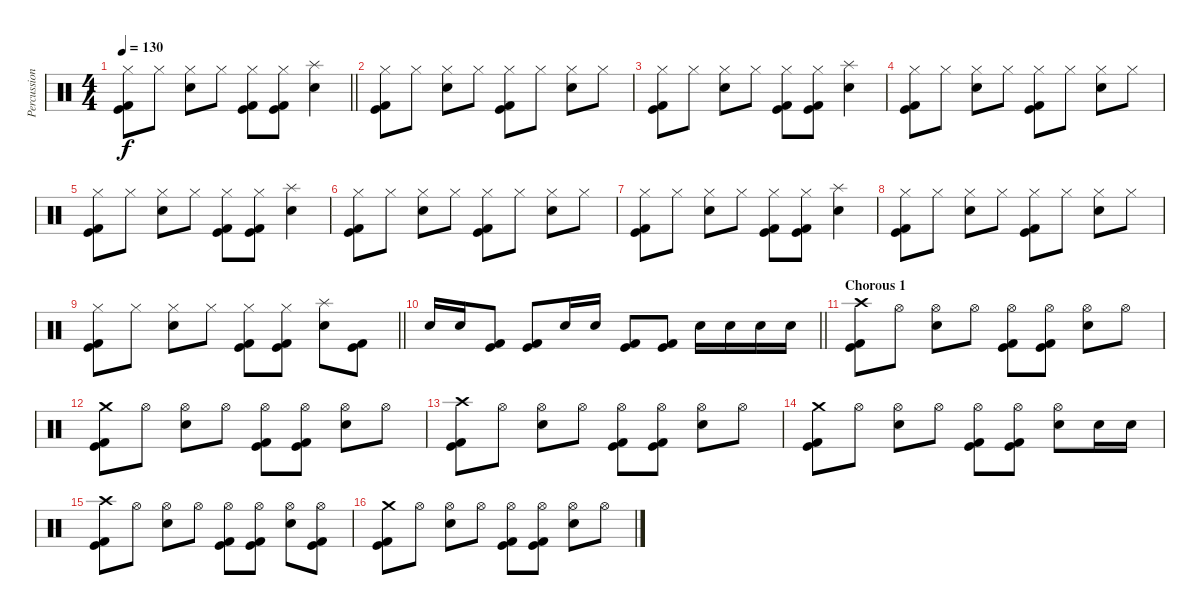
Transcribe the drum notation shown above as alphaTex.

\track ("Percussion" "Percussion") {instrument percussion}
\staff {score}
\articulation defaults
\ts (4 4)
\tempo 130
\clef neutral
\barLineRight lightlight
\ks c
("Hi-Hat (closed)" "Kick (hit)" "Kick (hit) 2").8{dy f} "Hi-Hat (closed)".8 ("Hi-Hat (closed)" "Electric Snare (hit)").8 "Hi-Hat (closed)".8 ("Hi-Hat (closed)" "Kick (hit)" "Kick (hit) 2").8 ("Hi-Hat (closed)" "Kick (hit)" "Kick (hit) 2").8 ("Splash (hit)" "Electric Snare (hit)").4 |
\section ("" "")
("Hi-Hat (closed)" "Kick (hit)" "Kick (hit) 2").8 "Hi-Hat (closed)".8 ("Hi-Hat (closed)" "Electric Snare (hit)").8 "Hi-Hat (closed)".8 ("Hi-Hat (closed)" "Kick (hit)" "Kick (hit) 2").8 "Hi-Hat (closed)".8 ("Hi-Hat (closed)" "Electric Snare (hit)").8 "Hi-Hat (closed)".8 |
("Hi-Hat (closed)" "Kick (hit)" "Kick (hit) 2").8 "Hi-Hat (closed)".8 ("Hi-Hat (closed)" "Electric Snare (hit)").8 "Hi-Hat (closed)".8 ("Hi-Hat (closed)" "Kick (hit)" "Kick (hit) 2").8 ("Hi-Hat (closed)" "Kick (hit)" "Kick (hit) 2").8 ("Splash (hit)" "Electric Snare (hit)").4 |
("Hi-Hat (closed)" "Kick (hit)" "Kick (hit) 2").8 "Hi-Hat (closed)".8 ("Hi-Hat (closed)" "Electric Snare (hit)").8 "Hi-Hat (closed)".8 ("Hi-Hat (closed)" "Kick (hit)" "Kick (hit) 2").8 "Hi-Hat (closed)".8 ("Hi-Hat (closed)" "Electric Snare (hit)").8 "Hi-Hat (closed)".8 |
("Hi-Hat (closed)" "Kick (hit)" "Kick (hit) 2").8 "Hi-Hat (closed)".8 ("Hi-Hat (closed)" "Electric Snare (hit)").8 "Hi-Hat (closed)".8 ("Hi-Hat (closed)" "Kick (hit)" "Kick (hit) 2").8 ("Hi-Hat (closed)" "Kick (hit)" "Kick (hit) 2").8 ("Splash (hit)" "Electric Snare (hit)").4 |
("Hi-Hat (closed)" "Kick (hit)" "Kick (hit) 2").8 "Hi-Hat (closed)".8 ("Hi-Hat (closed)" "Electric Snare (hit)").8 "Hi-Hat (closed)".8 ("Hi-Hat (closed)" "Kick (hit)" "Kick (hit) 2").8 "Hi-Hat (closed)".8 ("Hi-Hat (closed)" "Electric Snare (hit)").8 "Hi-Hat (closed)".8 |
("Hi-Hat (closed)" "Kick (hit)" "Kick (hit) 2").8 "Hi-Hat (closed)".8 ("Hi-Hat (closed)" "Electric Snare (hit)").8 "Hi-Hat (closed)".8 ("Hi-Hat (closed)" "Kick (hit)" "Kick (hit) 2").8 ("Hi-Hat (closed)" "Kick (hit)" "Kick (hit) 2").8 ("Splash (hit)" "Electric Snare (hit)").4 |
("Hi-Hat (closed)" "Kick (hit)" "Kick (hit) 2").8 "Hi-Hat (closed)".8 ("Hi-Hat (closed)" "Electric Snare (hit)").8 "Hi-Hat (closed)".8 ("Hi-Hat (closed)" "Kick (hit)" "Kick (hit) 2").8 "Hi-Hat (closed)".8 ("Hi-Hat (closed)" "Electric Snare (hit)").8 "Hi-Hat (closed)".8 |
\barLineRight lightlight
("Hi-Hat (closed)" "Kick (hit)" "Kick (hit) 2").8 "Hi-Hat (closed)".8 ("Hi-Hat (closed)" "Electric Snare (hit)").8 "Hi-Hat (closed)".8 ("Hi-Hat (closed)" "Kick (hit)" "Kick (hit) 2").8 ("Hi-Hat (closed)" "Kick (hit)" "Kick (hit) 2").8 ("Splash (hit)" "Electric Snare (hit)").8 ("Kick (hit)" "Kick (hit) 2").8 |
\section ("" "")
\barLineRight lightlight "Electric Snare (hit)".16 "Electric Snare (hit)".16
("Kick (hit)" "Kick (hit) 2").8 ("Kick (hit)" "Kick (hit) 2").8 "Electric Snare (hit)".16 "Electric Snare (hit)".16 ("Kick (hit)" "Kick (hit) 2").8 ("Kick (hit)" "Kick (hit) 2").8 "Electric Snare (hit)".16 "Electric Snare (hit)".16 "Electric Snare (hit)".16 "Electric Snare (hit)".16 |
\section ("" "Chorous 1")
("Crash high (hit)" "Kick (hit)" "Kick (hit) 2").8 "Hi-Hat (open)".8 ("Hi-Hat (open)" "Electric Snare (hit)").8 "Hi-Hat (open)".8 ("Hi-Hat (open)" "Kick (hit)" "Kick (hit) 2").8 ("Hi-Hat (open)" "Kick (hit)" "Kick (hit) 2").8 ("Hi-Hat (open)" "Electric Snare (hit)").8 "Hi-Hat (open)".8 |
("Crash medium (hit)" "Kick (hit)" "Kick (hit) 2").8 "Hi-Hat (open)".8 ("Hi-Hat (open)" "Electric Snare (hit)").8 "Hi-Hat (open)".8 ("Hi-Hat (open)" "Kick (hit)" "Kick (hit) 2").8 ("Hi-Hat (open)" "Kick (hit)" "Kick (hit) 2").8 ("Hi-Hat (open)" "Electric Snare (hit)").8 "Hi-Hat (open)".8 |
("Crash high (hit)" "Kick (hit)" "Kick (hit) 2").8 "Hi-Hat (open)".8 ("Hi-Hat (open)" "Electric Snare (hit)").8 "Hi-Hat (open)".8 ("Hi-Hat (open)" "Kick (hit)" "Kick (hit) 2").8 ("Hi-Hat (open)" "Kick (hit)" "Kick (hit) 2").8 ("Hi-Hat (open)" "Electric Snare (hit)").8 "Hi-Hat (open)".8 |
("Crash medium (hit)" "Kick (hit)" "Kick (hit) 2").8 "Hi-Hat (open)".8 ("Hi-Hat (open)" "Electric Snare (hit)").8 "Hi-Hat (open)".8 ("Hi-Hat (open)" "Kick (hit)" "Kick (hit) 2").8 ("Hi-Hat (open)" "Kick (hit)" "Kick (hit) 2").8 ("Hi-Hat (open)" "Electric Snare (hit)").8 "Electric Snare (hit)".16 "Electric Snare (hit)".16 |
("Crash high (hit)" "Kick (hit)" "Kick (hit) 2").8 "Hi-Hat (open)".8 ("Hi-Hat (open)" "Electric Snare (hit)").8 "Hi-Hat (open)".8 ("Hi-Hat (open)" "Kick (hit)" "Kick (hit) 2").8 ("Hi-Hat (open)" "Kick (hit)" "Kick (hit) 2").8 ("Hi-Hat (open)" "Electric Snare (hit)").8 ("Hi-Hat (open)" "Kick (hit)" "Kick (hit) 2").8 |
("Crash medium (hit)" "Kick (hit)" "Kick (hit) 2").8 "Hi-Hat (open)".8 ("Hi-Hat (open)" "Electric Snare (hit)").8 "Hi-Hat (open)".8 ("Hi-Hat (open)" "Kick (hit)" "Kick (hit) 2").8 ("Hi-Hat (open)" "Kick (hit)" "Kick (hit) 2").8 ("Hi-Hat (open)" "Electric Snare (hit)").8 "Hi-Hat (open)".8
